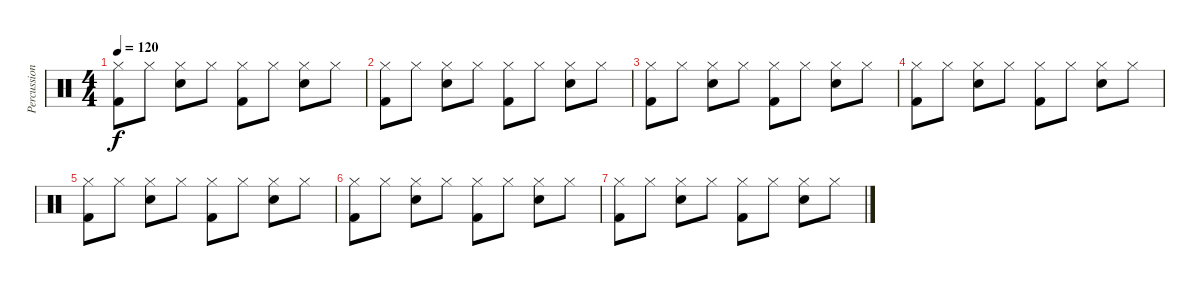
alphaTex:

\track ("Percussion" "Percussion") {instrument percussion}
\staff {score}
\articulation defaults
\ts (4 4)
\tempo 120
\clef neutral
\ks c
("Hi-Hat (closed)" "Kick (hit) 2").8{dy f} "Hi-Hat (closed)".8 ("Hi-Hat (closed)" "Electric Snare (hit)").8 "Hi-Hat (closed)".8 ("Hi-Hat (closed)" "Kick (hit) 2").8 "Hi-Hat (closed)".8 ("Hi-Hat (closed)" "Electric Snare (hit)").8 "Hi-Hat (closed)".8 |
("Hi-Hat (closed)" "Kick (hit) 2").8{volume 6} "Hi-Hat (closed)".8 ("Hi-Hat (closed)" "Electric Snare (hit)").8 "Hi-Hat (closed)".8 ("Hi-Hat (closed)" "Kick (hit) 2").8 "Hi-Hat (closed)".8 ("Hi-Hat (closed)" "Electric Snare (hit)").8 "Hi-Hat (closed)".8 |
("Hi-Hat (closed)" "Kick (hit) 2").8 "Hi-Hat (closed)".8 ("Hi-Hat (closed)" "Electric Snare (hit)").8 "Hi-Hat (closed)".8 ("Hi-Hat (closed)" "Kick (hit) 2").8 "Hi-Hat (closed)".8 ("Hi-Hat (closed)" "Electric Snare (hit)").8 "Hi-Hat (closed)".8 |
("Hi-Hat (closed)" "Kick (hit) 2").8{volume 3} "Hi-Hat (closed)".8 ("Hi-Hat (closed)" "Electric Snare (hit)").8 "Hi-Hat (closed)".8 ("Hi-Hat (closed)" "Kick (hit) 2").8 "Hi-Hat (closed)".8 ("Hi-Hat (closed)" "Electric Snare (hit)").8 "Hi-Hat (closed)".8 |
("Hi-Hat (closed)" "Kick (hit) 2").8 "Hi-Hat (closed)".8 ("Hi-Hat (closed)" "Electric Snare (hit)").8 "Hi-Hat (closed)".8 ("Hi-Hat (closed)" "Kick (hit) 2").8 "Hi-Hat (closed)".8 ("Hi-Hat (closed)" "Electric Snare (hit)").8 "Hi-Hat (closed)".8 |
("Hi-Hat (closed)" "Kick (hit) 2").8{volume 0} "Hi-Hat (closed)".8 ("Hi-Hat (closed)" "Electric Snare (hit)").8 "Hi-Hat (closed)".8 ("Hi-Hat (closed)" "Kick (hit) 2").8 "Hi-Hat (closed)".8 ("Hi-Hat (closed)" "Electric Snare (hit)").8 "Hi-Hat (closed)".8 |
("Hi-Hat (closed)" "Kick (hit) 2").8 "Hi-Hat (closed)".8 ("Hi-Hat (closed)" "Electric Snare (hit)").8 "Hi-Hat (closed)".8 ("Hi-Hat (closed)" "Kick (hit) 2").8 "Hi-Hat (closed)".8 ("Hi-Hat (closed)" "Electric Snare (hit)").8 "Hi-Hat (closed)".8
